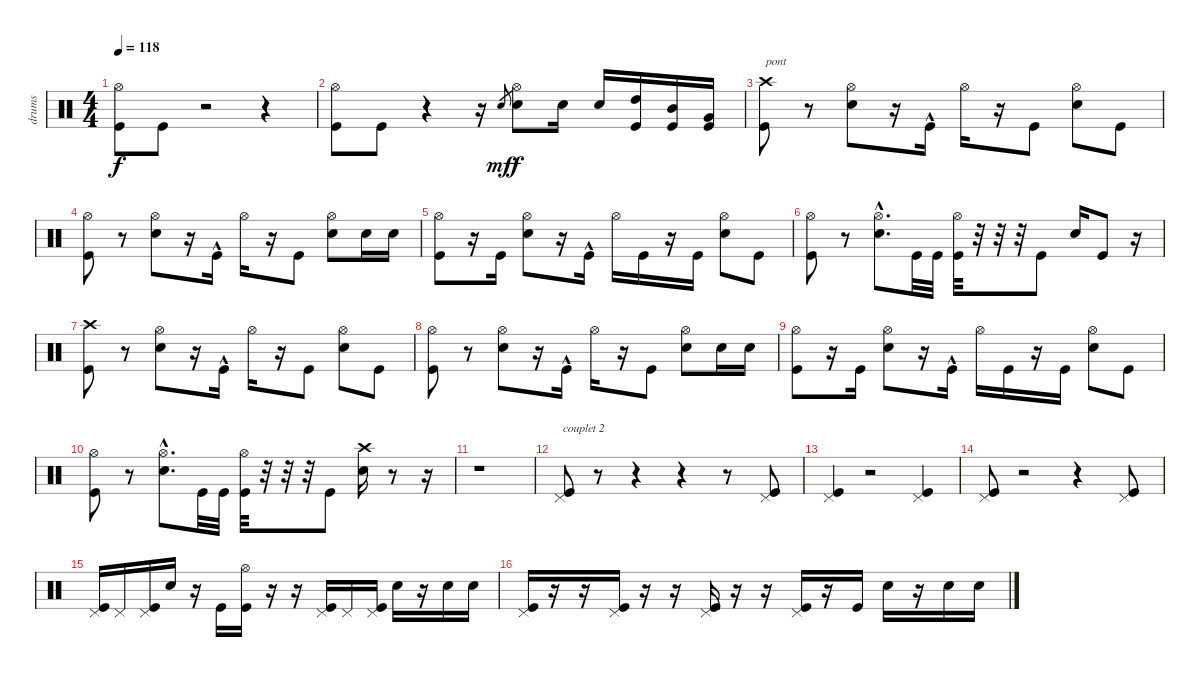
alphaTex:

\track ("drums" "drums") {instrument percussion}
\staff {score}
\articulation defaults
\ts (4 4)
\tempo 118
\clef neutral
\ks c
("Hi-Hat (open)" "Kick (hit)").8{dy f} "Kick (hit)".8 r.2 r.4 |
("Hi-Hat (open)" "Kick (hit)").8 "Kick (hit)".8 r.4 r.16 "Electric Snare (hit)".8{gr dy mf} ("Hi-Hat (open)" "Electric Snare (hit)").8{dy f} "Electric Snare (hit)".16 "Electric Snare (hit)".16 ("High Tom (hit)" "Kick (hit)").16 ("Mid Tom (hit)" "Kick (hit)").16 ("Very Low Tom (hit)" "Kick (hit)").16 |
("Crash high (hit)" "Kick (hit)").8{txt "pont"} r.8 ("Hi-Hat (open)" "Electric Snare (hit)").8 r.16 "Kick (hit)"{hac}.16 "Hi-Hat (open)".16 r.16 "Kick (hit)".8 ("Hi-Hat (open)" "Electric Snare (hit)").8 "Kick (hit)".8 |
("Hi-Hat (open)" "Kick (hit)").8 r.8 ("Hi-Hat (open)" "Electric Snare (hit)").8 r.16 "Kick (hit)"{hac}.16 "Hi-Hat (open)".16 r.16 "Kick (hit)".8 ("Hi-Hat (open)" "Electric Snare (hit)").8 "Electric Snare (hit)".16 "Electric Snare (hit)".16 |
("Hi-Hat (open)" "Kick (hit)").8 r.16 "Kick (hit)".16 ("Hi-Hat (open)" "Electric Snare (hit)").8 r.16 "Kick (hit)"{hac}.16 "Hi-Hat (open)".16 "Kick (hit)".16 r.16 "Kick (hit)".16 ("Hi-Hat (open)" "Electric Snare (hit)").8 "Kick (hit)".8 |
("Hi-Hat (open)" "Kick (hit)").8 r.8 ("Hi-Hat (open)"{hac} "Electric Snare (hit)"{hac}).8{d} "Kick (hit)".32 "Kick (hit)".32 ("Hi-Hat (open)" "Kick (hit)").32 r.32 r.32 r.32 "Kick (hit)".8 "Electric Snare (hit)".16 "Kick (hit)".8 r.16 |
("Crash high (hit)" "Kick (hit)").8 r.8 ("Hi-Hat (open)" "Electric Snare (hit)").8 r.16 "Kick (hit)"{hac}.16 "Hi-Hat (open)".16 r.16 "Kick (hit)".8 ("Hi-Hat (open)" "Electric Snare (hit)").8 "Kick (hit)".8 |
("Hi-Hat (open)" "Kick (hit)").8 r.8 ("Hi-Hat (open)" "Electric Snare (hit)").8 r.16 "Kick (hit)"{hac}.16 "Hi-Hat (open)".16 r.16 "Kick (hit)".8 ("Hi-Hat (open)" "Electric Snare (hit)").8 "Electric Snare (hit)".16 "Electric Snare (hit)".16 |
("Hi-Hat (open)" "Kick (hit)").8 r.16 "Kick (hit)".16 ("Hi-Hat (open)" "Electric Snare (hit)").8 r.16 "Kick (hit)"{hac}.16 "Hi-Hat (open)".16 "Kick (hit)".16 r.16 "Kick (hit)".16 ("Hi-Hat (open)" "Electric Snare (hit)").8 "Kick (hit)".8 |
("Hi-Hat (open)" "Kick (hit)").8 r.8 ("Hi-Hat (open)"{hac} "Electric Snare (hit)"{hac}).8{d} "Kick (hit)".32 "Kick (hit)".32 ("Hi-Hat (open)" "Kick (hit)").32 r.32 r.32 r.32 "Kick (hit)".8 ("Crash high (hit)" "Electric Snare (hit)").16 r.8 r.16 |
r.1 |
("Pedal Hi-Hat (hit)" "Kick (hit)").8{txt " couplet 2"} r.8 r.4 r.4 r.8 ("Pedal Hi-Hat (hit)" "Kick (hit)").8 |
("Pedal Hi-Hat (hit)" "Kick (hit)").4 r.2 ("Pedal Hi-Hat (hit)" "Kick (hit)").4 |
("Pedal Hi-Hat (hit)" "Kick (hit)").8 r.2 r.4 ("Pedal Hi-Hat (hit)" "Kick (hit)").8 |
("Pedal Hi-Hat (hit)" "Kick (hit)").16 "Pedal Hi-Hat (hit)".16 ("Pedal Hi-Hat (hit)" "Kick (hit)").16 "Electric Snare (hit)".16 r.16 "Kick (hit)".16 ("Hi-Hat (open)" "Kick (hit)").16 r.16 r.16 ("Pedal Hi-Hat (hit)" "Kick (hit)").16 "Pedal Hi-Hat (hit)".16 ("Pedal Hi-Hat (hit)" "Kick (hit)").16 "Electric Snare (hit)".16 r.16 "Electric Snare (hit)".16 "Electric Snare (hit)".16 |
("Pedal Hi-Hat (hit)" "Kick (hit)").16 r.16 r.16 ("Pedal Hi-Hat (hit)" "Kick (hit)").16 r.16 r.16 ("Pedal Hi-Hat (hit)" "Kick (hit)").16 r.16 r.16 ("Pedal Hi-Hat (hit)" "Kick (hit)").16 r.16 "Kick (hit)".16 "Electric Snare (hit)".16 r.16 "Electric Snare (hit)".16 "Electric Snare (hit)".16
